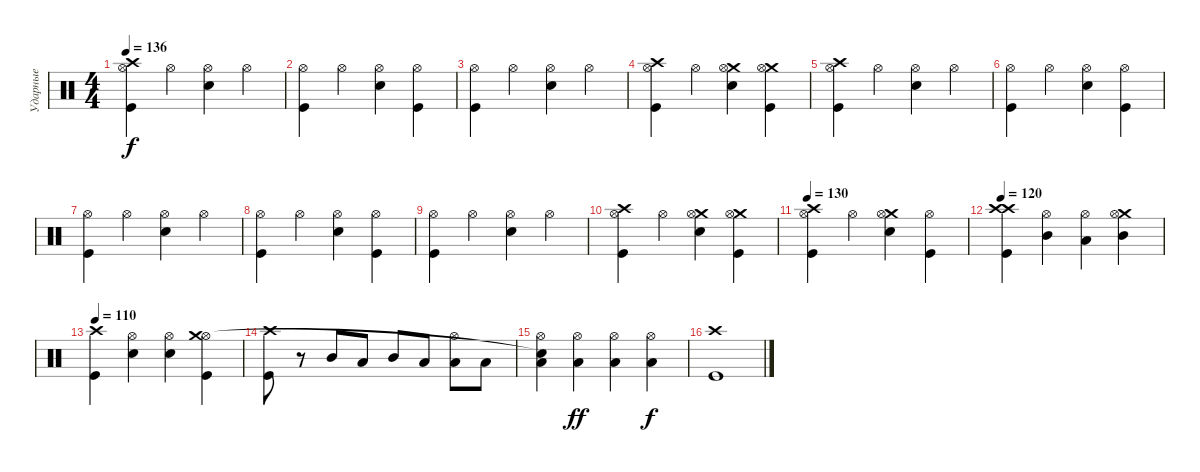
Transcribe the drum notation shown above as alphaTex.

\track ("Ударные" "Ударные") {instrument percussion}
\staff {score}
\articulation defaults
\ts (4 4)
\tempo 136
\clef neutral
\ks c
("Crash high (hit)" "Hi-Hat (open)" "Kick (hit)").4{dy f} "Hi-Hat (open)".4 ("Hi-Hat (open)" "Electric Snare (hit)").4 "Hi-Hat (open)".4 |
("Hi-Hat (open)" "Kick (hit)").4 "Hi-Hat (open)".4 ("Hi-Hat (open)" "Electric Snare (hit)").4 ("Hi-Hat (open)" "Kick (hit)").4 |
("Hi-Hat (open)" "Kick (hit)").4 "Hi-Hat (open)".4 ("Hi-Hat (open)" "Electric Snare (hit)").4 "Hi-Hat (open)".4 |
("Crash high (hit)" "Hi-Hat (open)" "Kick (hit)").4 "Hi-Hat (open)".4 ("Crash medium (hit)" "Hi-Hat (open)" "Electric Snare (hit)").4 ("Crash medium (hit)" "Hi-Hat (open)" "Kick (hit)").4 |
("Crash high (hit)" "Hi-Hat (open)" "Kick (hit)").4 "Hi-Hat (open)".4 ("Hi-Hat (open)" "Electric Snare (hit)").4 "Hi-Hat (open)".4 |
("Hi-Hat (open)" "Kick (hit)").4 "Hi-Hat (open)".4 ("Hi-Hat (open)" "Electric Snare (hit)").4 ("Hi-Hat (open)" "Kick (hit)").4 |
("Hi-Hat (open)" "Kick (hit)").4 "Hi-Hat (open)".4 ("Hi-Hat (open)" "Electric Snare (hit)").4 "Hi-Hat (open)".4 |
("Hi-Hat (open)" "Kick (hit)").4 "Hi-Hat (open)".4 ("Hi-Hat (open)" "Electric Snare (hit)").4 ("Hi-Hat (open)" "Kick (hit)").4 |
("Hi-Hat (open)" "Kick (hit)").4 "Hi-Hat (open)".4 ("Hi-Hat (open)" "Electric Snare (hit)").4 "Hi-Hat (open)".4 |
("Crash high (hit)" "Hi-Hat (open)" "Kick (hit)").4 "Hi-Hat (open)".4 ("Crash medium (hit)" "Hi-Hat (open)" "Electric Snare (hit)").4 ("Crash medium (hit)" "Hi-Hat (open)" "Kick (hit)").4 |
\tempo 130
("Crash high (hit)" "Hi-Hat (open)" "Kick (hit)").4 "Hi-Hat (open)".4 ("Crash medium (hit)" "Electric Snare (hit)" "Hi-Hat (open)").4 ("Kick (hit)" "Hi-Hat (open)").4 |
\tempo 120
("Crash high (hit)" "Crash high (hit)" "Kick (hit)").4 ("Hi-Hat (open)" "Mid Tom (hit)").4 ("Hi-Hat (open)" "Low Tom (hit)").4 ("Crash medium (hit)" "Hi-Hat (open)" "Mid Tom (hit)").4 |
\tempo 110
("Crash high (hit)" "Kick (hit)").4 ("Hi-Hat (open)" "Electric Snare (hit)").4 ("Hi-Hat (open)" "Electric Snare (hit)").4 ("Hi-Hat (open)" "Kick (hit)" "Crash medium (hit)").4 |
("Kick (hit)" "Crash high (hit)").8 r.8 "Mid Tom (hit)".8 "Low Tom (hit)".8 "Mid Tom (hit)".8 "Low Tom (hit)".8 ("Low Tom (hit)" "Hi-Hat (open)").8 "Low Tom (hit)".8 |
("Low Tom (hit)" "Hi-Hat (open)" "Snare (hit)"{t}).4 ("Low Tom (hit)" "Hi-Hat (open)").4{dy ff} ("Low Tom (hit)" "Hi-Hat (open)").4 ("Low Tom (hit)" "Hi-Hat (open)").4{dy f} |
("Crash high (hit)" "Kick (hit)").1
